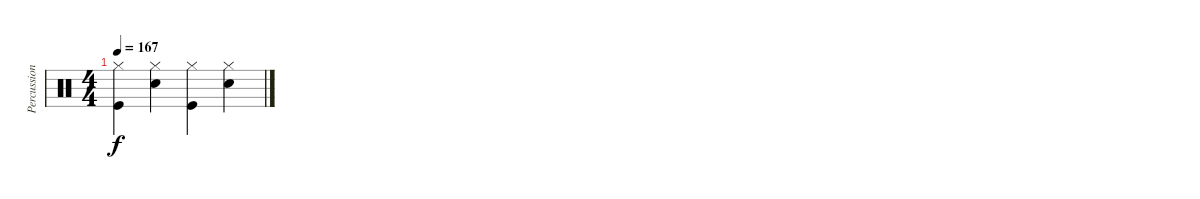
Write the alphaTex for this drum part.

\track ("Percussion" "Percussion") {instrument percussion}
\staff {score}
\articulation defaults
\ts (4 4)
\tempo 167
\clef neutral
\ks c
("Hi-Hat (closed)" "Kick (hit)").4{dy f} ("Hi-Hat (closed)" "Electric Snare (hit)").4 ("Hi-Hat (closed)" "Kick (hit)").4 ("Hi-Hat (closed)" "Electric Snare (hit)").4
